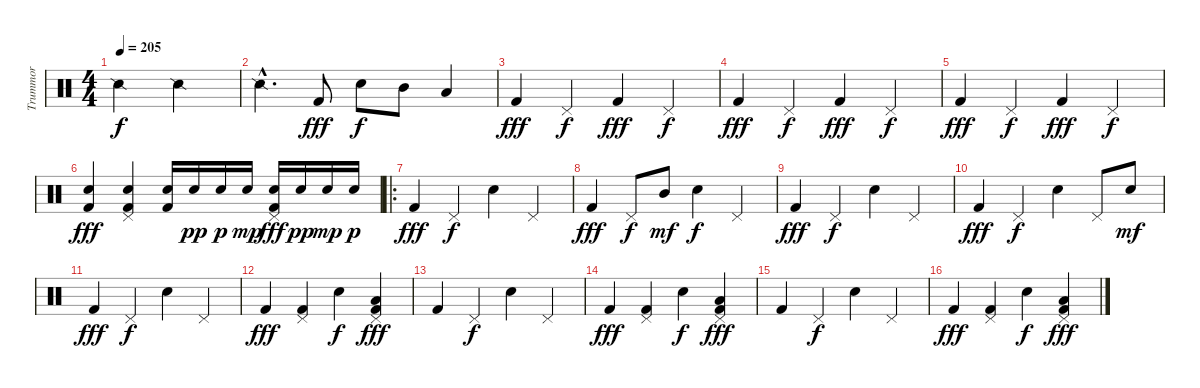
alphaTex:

\track ("Trummor" "Trummor") {instrument percussion}
\staff {score}
\articulation defaults
\ts (4 4)
\tempo 205
\clef neutral
\ks c "Snare (side stick) 2".2{dy f} "Snare (side stick) 2".2
|
"Snare (side stick) 2"{hac}.4{d} "Kick (hit) 2".8{dy fff} "Electric Snare (hit)".8{dy f} "Mid Tom (hit)".8 "Low Tom (hit)".4 |
"Kick (hit) 2".4{dy fff} "Pedal Hi-Hat (hit)".4{dy f} "Kick (hit) 2".4{dy fff} "Pedal Hi-Hat (hit)".4{dy f} |
"Kick (hit) 2".4{dy fff} "Pedal Hi-Hat (hit)".4{dy f} "Kick (hit) 2".4{dy fff} "Pedal Hi-Hat (hit)".4{dy f} |
"Kick (hit) 2".4{dy fff} "Pedal Hi-Hat (hit)".4{dy f} "Kick (hit) 2".4{dy fff} "Pedal Hi-Hat (hit)".4{dy f} |
("Electric Snare (hit)" "Kick (hit) 2").4{dy fff} ("Pedal Hi-Hat (hit)" "Electric Snare (hit)" "Kick (hit) 2").4 ("Electric Snare (hit)" "Kick (hit) 2").16 "Electric Snare (hit)".16{dy pp} "Electric Snare (hit)".16{dy p} "Electric Snare (hit)".16{dy mp} ("Pedal Hi-Hat (hit)" "Electric Snare (hit)" "Kick (hit) 2").16{dy fff} "Electric Snare (hit)".16{dy pp} "Electric Snare (hit)".16{dy mp} "Electric Snare (hit)".16{dy p} |
\ro "Kick (hit) 2".4{dy fff} "Pedal Hi-Hat (hit)".4{dy f} "Electric Snare (hit)".4 "Pedal Hi-Hat (hit)".4
|
"Kick (hit) 2".4{dy fff} "Pedal Hi-Hat (hit)".8{dy f} "Mid Tom (hit)".8{dy mf} "Electric Snare (hit)".4{dy f} "Pedal Hi-Hat (hit)".4 |
"Kick (hit) 2".4{dy fff} "Pedal Hi-Hat (hit)".4{dy f} "Electric Snare (hit)".4 "Pedal Hi-Hat (hit)".4 |
"Kick (hit) 2".4{dy fff} "Pedal Hi-Hat (hit)".4{dy f} "Electric Snare (hit)".4 "Pedal Hi-Hat (hit)".8 "Electric Snare (hit)".8{dy mf} |
"Kick (hit) 2".4{dy fff} "Pedal Hi-Hat (hit)".4{dy f} "Electric Snare (hit)".4 "Pedal Hi-Hat (hit)".4 |
"Kick (hit) 2".4{dy fff} ("Pedal Hi-Hat (hit)" "Kick (hit) 2").4 "Electric Snare (hit)".4{dy f} ("Pedal Hi-Hat (hit)" "Low Tom (hit)" "Kick (hit) 2").4{dy fff} |
"Kick (hit) 2".4 "Pedal Hi-Hat (hit)".4{dy f} "Electric Snare (hit)".4 "Pedal Hi-Hat (hit)".4 |
"Kick (hit) 2".4{dy fff} ("Pedal Hi-Hat (hit)" "Kick (hit) 2").4 "Electric Snare (hit)".4{dy f} ("Pedal Hi-Hat (hit)" "Low Tom (hit)" "Kick (hit) 2").4{dy fff} |
"Kick (hit) 2".4 "Pedal Hi-Hat (hit)".4{dy f} "Electric Snare (hit)".4 "Pedal Hi-Hat (hit)".4 |
"Kick (hit) 2".4{dy fff} ("Pedal Hi-Hat (hit)" "Kick (hit) 2").4 "Electric Snare (hit)".4{dy f} ("Pedal Hi-Hat (hit)" "Low Tom (hit)" "Kick (hit) 2").4{dy fff}
